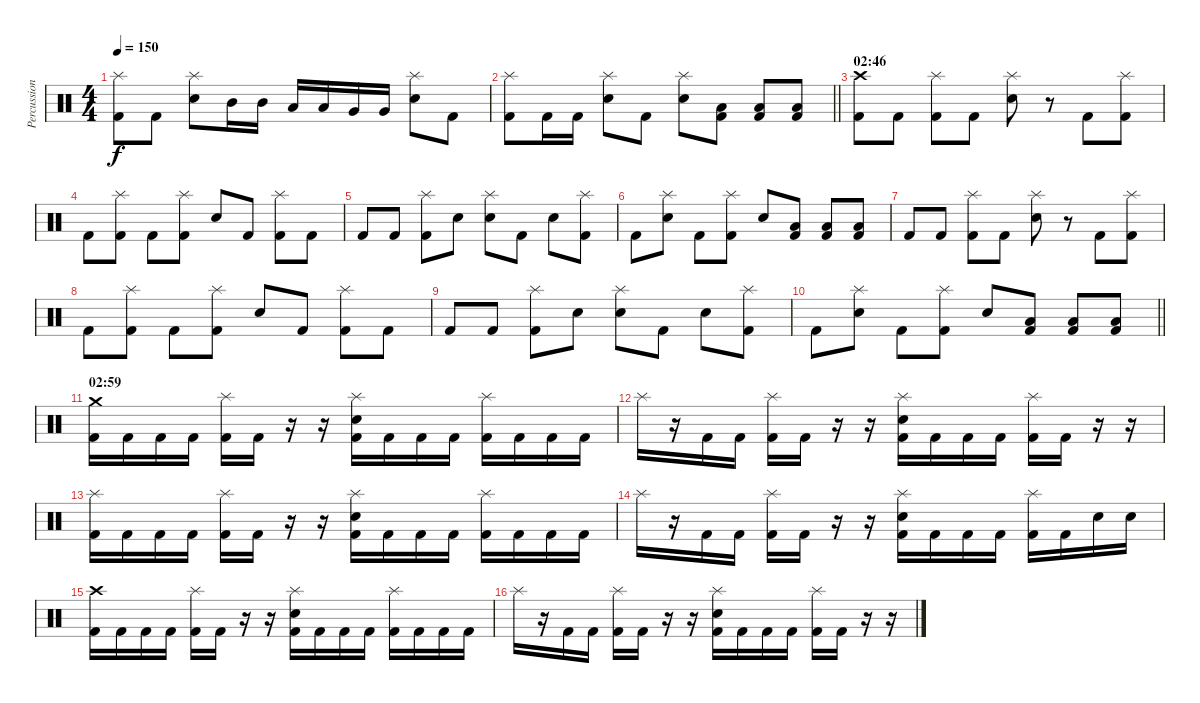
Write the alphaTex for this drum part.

\track ("Percussion" "Percussion") {instrument percussion}
\staff {score}
\articulation defaults
\ts (4 4)
\tempo 150
\clef neutral
\ks c
("Splash (hit)" "Kick (hit) 2").8{dy f} "Kick (hit) 2".8 ("Splash (hit)" "Electric Snare (hit)").8 "Mid Tom (hit)".16 "Mid Tom (hit)".16 "Low Tom (hit)".16 "Low Tom (hit)".16 "Very Low Tom (hit)".16 "Very Low Tom (hit)".16 ("Splash (hit)" "Electric Snare (hit)").8 "Kick (hit) 2".8 |
\barLineRight lightlight
("Splash (hit)" "Kick (hit) 2").8 "Kick (hit) 2".16 "Kick (hit) 2".16 ("Splash (hit)" "Electric Snare (hit)").8 "Kick (hit) 2".8 ("Splash (hit)" "Electric Snare (hit)").8 ("Low Floor Tom (hit)" "Kick (hit) 2").8 ("Low Floor Tom (hit)" "Kick (hit) 2").8 ("Low Floor Tom (hit)" "Kick (hit) 2").8 |
\section ("" "02:46")
("Crash high (hit)" "Kick (hit) 2").8 "Kick (hit) 2".8 ("Splash (hit)" "Kick (hit) 2").8 "Kick (hit) 2".8 ("Splash (hit)" "Electric Snare (hit)").8 r.8 "Kick (hit) 2".8 ("Splash (hit)" "Kick (hit) 2").8 |
"Kick (hit) 2".8 ("Splash (hit)" "Kick (hit) 2").8 "Kick (hit) 2".8 ("Splash (hit)" "Kick (hit) 2").8 "Electric Snare (hit)".8 "Kick (hit) 2".8 ("Splash (hit)" "Kick (hit) 2").8 "Kick (hit) 2".8 |
"Kick (hit) 2".8 "Kick (hit) 2".8 ("Splash (hit)" "Kick (hit) 2").8 "Electric Snare (hit)".8 ("Splash (hit)" "Electric Snare (hit)").8 "Kick (hit) 2".8 "Electric Snare (hit)".8 ("Splash (hit)" "Kick (hit) 2").8 |
"Kick (hit) 2".8 ("Splash (hit)" "Electric Snare (hit)").8 "Kick (hit) 2".8 ("Splash (hit)" "Kick (hit) 2").8 "Electric Snare (hit)".8 ("Low Floor Tom (hit)" "Kick (hit) 2").8 ("Low Floor Tom (hit)" "Kick (hit) 2").8 ("Low Floor Tom (hit)" "Kick (hit) 2").8 |
"Kick (hit) 2".8 "Kick (hit) 2".8 ("Splash (hit)" "Kick (hit) 2").8 "Kick (hit) 2".8 ("Splash (hit)" "Electric Snare (hit)").8 r.8 "Kick (hit) 2".8 ("Splash (hit)" "Kick (hit) 2").8 |
"Kick (hit) 2".8 ("Splash (hit)" "Kick (hit) 2").8 "Kick (hit) 2".8 ("Splash (hit)" "Kick (hit) 2").8 "Electric Snare (hit)".8 "Kick (hit) 2".8 ("Splash (hit)" "Kick (hit) 2").8 "Kick (hit) 2".8 |
"Kick (hit) 2".8 "Kick (hit) 2".8 ("Splash (hit)" "Kick (hit) 2").8 "Electric Snare (hit)".8 ("Splash (hit)" "Electric Snare (hit)").8 "Kick (hit) 2".8 "Electric Snare (hit)".8 ("Splash (hit)" "Kick (hit) 2").8 |
\barLineRight lightlight "Kick (hit) 2".8
("Splash (hit)" "Electric Snare (hit)").8 "Kick (hit) 2".8 ("Splash (hit)" "Kick (hit) 2").8 "Electric Snare (hit)".8 ("Low Floor Tom (hit)" "Kick (hit) 2").8 ("Low Floor Tom (hit)" "Kick (hit) 2").8 ("Low Floor Tom (hit)" "Kick (hit) 2").8 |
\section ("" "02:59")
("Crash medium (hit)" "Kick (hit) 2").16 "Kick (hit) 2".16 "Kick (hit) 2".16 "Kick (hit) 2".16 ("Splash (hit)" "Kick (hit) 2").16 "Kick (hit) 2".16 r.16 r.16 ("Splash (hit)" "Electric Snare (hit)" "Kick (hit) 2").16 "Kick (hit) 2".16 "Kick (hit) 2".16 "Kick (hit) 2".16 ("Splash (hit)" "Kick (hit) 2").16 "Kick (hit) 2".16 "Kick (hit) 2".16 "Kick (hit) 2".16 |
"Splash (hit)".16 r.16 "Kick (hit) 2".16 "Kick (hit) 2".16 ("Splash (hit)" "Kick (hit) 2").16 "Kick (hit) 2".16 r.16 r.16 ("Splash (hit)" "Electric Snare (hit)" "Kick (hit) 2").16 "Kick (hit) 2".16 "Kick (hit) 2".16 "Kick (hit) 2".16 ("Splash (hit)" "Kick (hit) 2").16 "Kick (hit) 2".16 r.16 r.16 |
("Splash (hit)" "Kick (hit) 2").16 "Kick (hit) 2".16 "Kick (hit) 2".16 "Kick (hit) 2".16 ("Splash (hit)" "Kick (hit) 2").16 "Kick (hit) 2".16 r.16 r.16 ("Splash (hit)" "Electric Snare (hit)" "Kick (hit) 2").16 "Kick (hit) 2".16 "Kick (hit) 2".16 "Kick (hit) 2".16 ("Splash (hit)" "Kick (hit) 2").16 "Kick (hit) 2".16 "Kick (hit) 2".16 "Kick (hit) 2".16 |
"Splash (hit)".16 r.16 "Kick (hit) 2".16 "Kick (hit) 2".16 ("Splash (hit)" "Kick (hit) 2").16 "Kick (hit) 2".16 r.16 r.16 ("Splash (hit)" "Electric Snare (hit)" "Kick (hit) 2").16 "Kick (hit) 2".16 "Kick (hit) 2".16 "Kick (hit) 2".16 ("Splash (hit)" "Kick (hit) 2").16 "Kick (hit) 2".16 "Electric Snare (hit)".16 "Electric Snare (hit)".16 |
("Crash high (hit)" "Kick (hit) 2").16 "Kick (hit) 2".16 "Kick (hit) 2".16 "Kick (hit) 2".16 ("Splash (hit)" "Kick (hit) 2").16 "Kick (hit) 2".16 r.16 r.16 ("Splash (hit)" "Electric Snare (hit)" "Kick (hit) 2").16 "Kick (hit) 2".16 "Kick (hit) 2".16 "Kick (hit) 2".16 ("Splash (hit)" "Kick (hit) 2").16 "Kick (hit) 2".16 "Kick (hit) 2".16 "Kick (hit) 2".16 |
"Splash (hit)".16 r.16 "Kick (hit) 2".16 "Kick (hit) 2".16 ("Splash (hit)" "Kick (hit) 2").16 "Kick (hit) 2".16 r.16 r.16 ("Splash (hit)" "Electric Snare (hit)" "Kick (hit) 2").16 "Kick (hit) 2".16 "Kick (hit) 2".16 "Kick (hit) 2".16 ("Splash (hit)" "Kick (hit) 2").16 "Kick (hit) 2".16 r.16 r.16
